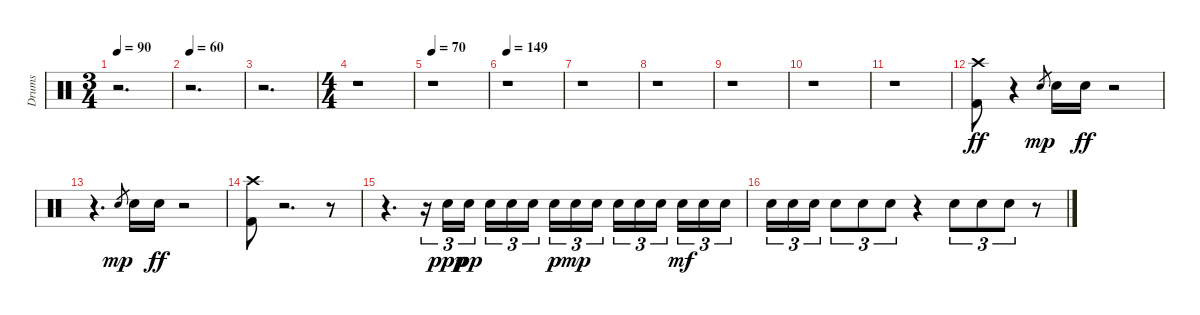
\track ("Drums" "Drums") {instrument percussion}
\staff {score}
\articulation defaults
\ts (3 4)
\tempo 90
\clef neutral
\ks c
r.2{d dy ff} |
\tempo 60
r.2{d} |
r.2{d} |
\ts (4 4)
r.1 |
\tempo 70
r.1 |
\tempo 149
r.1 |
r.1 |
r.1 |
r.1 |
r.1 |
r.1 |
("Kick (hit) 2" "Crash high (hit)").8 r.4 "Snare (hit) 2".8{gr dy mp} "Snare (hit) 2".16 "Snare (hit) 2".16{dy ff} r.2 |
r.4{d} "Snare (hit) 2".8{gr dy mp} "Snare (hit) 2".16 "Snare (hit) 2".16{dy ff} r.2 |
("Kick (hit) 2" "Crash high (hit)").8 r.2{d} r.8 |
r.4{d} r.16{tu (3 2)} "Snare (hit) 2".16{tu (3 2) dy ppp} "Snare (hit) 2".16{tu (3 2) dy pp} "Snare (hit) 2".16{tu (3 2)} "Snare (hit) 2".16{tu (3 2)} "Snare (hit) 2".16{tu (3 2)} "Snare (hit) 2".16{tu (3 2) dy p} "Snare (hit) 2".16{tu (3 2) dy mp} "Snare (hit) 2".16{tu (3 2)} "Snare (hit) 2".16{tu (3 2)} "Snare (hit) 2".16{tu (3 2)} "Snare (hit) 2".16{tu (3 2)} "Snare (hit) 2".16{tu (3 2) dy mf} "Snare (hit) 2".16{tu (3 2)} "Snare (hit) 2".16{tu (3 2)} |
"Snare (hit) 2".16{tu (3 2)} "Snare (hit) 2".16{tu (3 2)} "Snare (hit) 2".16{tu (3 2)} "Snare (hit) 2".8{tu (3 2)} "Snare (hit) 2".8{tu (3 2)} "Snare (hit) 2".8{tu (3 2)} r.4 "Snare (hit) 2".8{tu (3 2)} "Snare (hit) 2".8{tu (3 2)} "Snare (hit) 2".8{tu (3 2)} r.8
